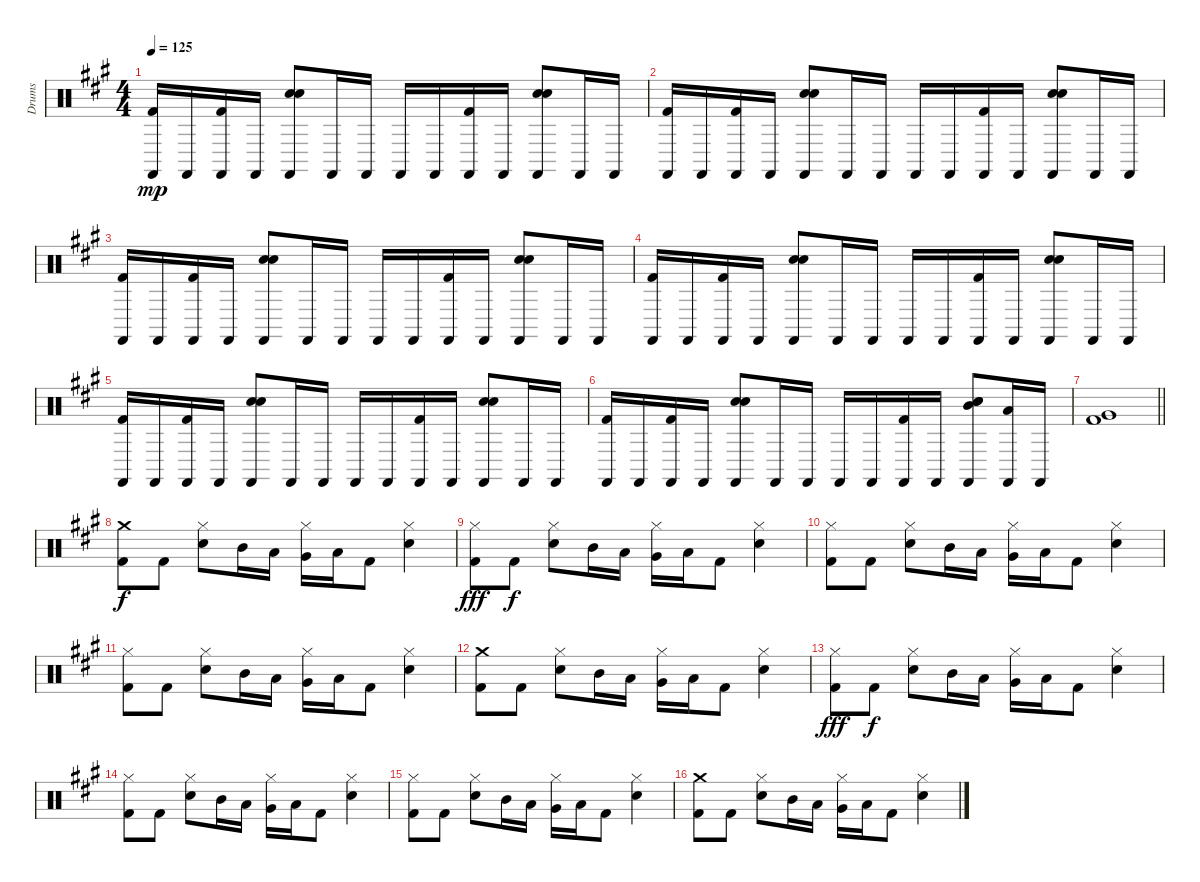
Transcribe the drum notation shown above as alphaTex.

\track ("Drums" "Drums") {instrument percussion}
\staff {score}
\articulation defaults
\ts (4 4)
\tempo 125
\clef neutral
\ks a
("Castanets (hit)" "Kick (hit) 2").16{dy mp} "Castanets (hit)".16 ("Castanets (hit)" "Kick (hit) 2").16 "Castanets (hit)".16 ("Castanets (hit)" "Hand Clap (hit)" "Snare (hit) 2").8 "Castanets (hit)".16 "Castanets (hit)".16 "Castanets (hit)".16 "Castanets (hit)".16 ("Castanets (hit)" "Kick (hit) 2").16 "Castanets (hit)".16 ("Castanets (hit)" "Hand Clap (hit)" "Snare (hit) 2").8 "Castanets (hit)".16 "Castanets (hit)".16 |
("Castanets (hit)" "Kick (hit) 2").16 "Castanets (hit)".16 ("Castanets (hit)" "Kick (hit) 2").16 "Castanets (hit)".16 ("Castanets (hit)" "Hand Clap (hit)" "Snare (hit) 2").8 "Castanets (hit)".16 "Castanets (hit)".16 "Castanets (hit)".16 "Castanets (hit)".16 ("Castanets (hit)" "Kick (hit) 2").16 "Castanets (hit)".16 ("Castanets (hit)" "Hand Clap (hit)" "Snare (hit) 2").8 "Castanets (hit)".16 "Castanets (hit)".16 |
("Castanets (hit)" "Kick (hit) 2").16 "Castanets (hit)".16 ("Castanets (hit)" "Kick (hit) 2").16 "Castanets (hit)".16 ("Castanets (hit)" "Hand Clap (hit)" "Snare (hit) 2").8 "Castanets (hit)".16 "Castanets (hit)".16 "Castanets (hit)".16 "Castanets (hit)".16 ("Castanets (hit)" "Kick (hit) 2").16 "Castanets (hit)".16 ("Castanets (hit)" "Hand Clap (hit)" "Snare (hit) 2").8 "Castanets (hit)".16 "Castanets (hit)".16 |
("Castanets (hit)" "Kick (hit) 2").16 "Castanets (hit)".16 ("Castanets (hit)" "Kick (hit) 2").16 "Castanets (hit)".16 ("Castanets (hit)" "Hand Clap (hit)" "Snare (hit) 2").8 "Castanets (hit)".16 "Castanets (hit)".16 "Castanets (hit)".16 "Castanets (hit)".16 ("Castanets (hit)" "Kick (hit) 2").16 "Castanets (hit)".16 ("Castanets (hit)" "Hand Clap (hit)" "Snare (hit) 2").8 "Castanets (hit)".16 "Castanets (hit)".16 |
("Castanets (hit)" "Kick (hit) 2").16 "Castanets (hit)".16 ("Castanets (hit)" "Kick (hit) 2").16 "Castanets (hit)".16 ("Castanets (hit)" "Hand Clap (hit)" "Snare (hit) 2").8 "Castanets (hit)".16 "Castanets (hit)".16 "Castanets (hit)".16 "Castanets (hit)".16 ("Castanets (hit)" "Kick (hit) 2").16 "Castanets (hit)".16 ("Castanets (hit)" "Hand Clap (hit)" "Snare (hit) 2").8 "Castanets (hit)".16 "Castanets (hit)".16 |
("Castanets (hit)" "Kick (hit) 2").16 "Castanets (hit)".16 ("Castanets (hit)" "Kick (hit) 2").16 "Castanets (hit)".16 ("Castanets (hit)" "Hand Clap (hit)" "Snare (hit) 2").8 "Castanets (hit)".16 "Castanets (hit)".16 "Castanets (hit)".16 "Castanets (hit)".16 ("Castanets (hit)" "Kick (hit) 2").16 "Castanets (hit)".16 ("Castanets (hit)" "Mid Tom (hit)" "Hand Clap (hit)" "Snare (hit) 2").8 ("Castanets (hit)" "Low Tom (hit)").16 "Castanets (hit)".16 |
\barLineRight lightlight
("Very Low Tom (hit)" "Kick (hit) 2").1 |
("Crash medium (hit)" "Kick (hit) 2").8{dy f} "Kick (hit) 2".8 ("Hi-Hat (closed)" "Snare (hit) 2").8 "Mid Tom (hit)".16 "Low Tom (hit)".16 ("Hi-Hat (closed)" "Very Low Tom (hit)").16 "Low Floor Tom (hit)".16 "Kick (hit) 2".8 ("Hi-Hat (closed)" "Snare (hit) 2").4 |
("Hi-Hat (closed)" "Kick (hit) 2").8{dy fff} "Kick (hit) 2".8{dy f} ("Hi-Hat (closed)" "Snare (hit) 2").8 "Mid Tom (hit)".16 "Low Tom (hit)".16 ("Hi-Hat (closed)" "Very Low Tom (hit)").16 "Low Floor Tom (hit)".16 "Kick (hit) 2".8 ("Hi-Hat (closed)" "Snare (hit) 2").4 |
("Hi-Hat (closed)" "Kick (hit) 2").8 "Kick (hit) 2".8 ("Hi-Hat (closed)" "Snare (hit) 2").8 "Mid Tom (hit)".16 "Low Tom (hit)".16 ("Hi-Hat (closed)" "Very Low Tom (hit)").16 "Low Floor Tom (hit)".16 "Kick (hit) 2".8 ("Hi-Hat (closed)" "Snare (hit) 2").4 |
("Hi-Hat (closed)" "Kick (hit) 2").8 "Kick (hit) 2".8 ("Hi-Hat (closed)" "Snare (hit) 2").8 "Mid Tom (hit)".16 "Low Tom (hit)".16 ("Hi-Hat (closed)" "Very Low Tom (hit)").16 "Low Floor Tom (hit)".16 "Kick (hit) 2".8 ("Hi-Hat (closed)" "Snare (hit) 2").4 |
("Crash medium (hit)" "Kick (hit) 2").8 "Kick (hit) 2".8 ("Hi-Hat (closed)" "Snare (hit) 2").8 "Mid Tom (hit)".16 "Low Tom (hit)".16 ("Hi-Hat (closed)" "Very Low Tom (hit)").16 "Low Floor Tom (hit)".16 "Kick (hit) 2".8 ("Hi-Hat (closed)" "Snare (hit) 2").4 |
("Hi-Hat (closed)" "Kick (hit) 2").8{dy fff} "Kick (hit) 2".8{dy f} ("Hi-Hat (closed)" "Snare (hit) 2").8 "Mid Tom (hit)".16 "Low Tom (hit)".16 ("Hi-Hat (closed)" "Very Low Tom (hit)").16 "Low Floor Tom (hit)".16 "Kick (hit) 2".8 ("Hi-Hat (closed)" "Snare (hit) 2").4 |
("Hi-Hat (closed)" "Kick (hit) 2").8 "Kick (hit) 2".8 ("Hi-Hat (closed)" "Snare (hit) 2").8 "Mid Tom (hit)".16 "Low Tom (hit)".16 ("Hi-Hat (closed)" "Very Low Tom (hit)").16 "Low Floor Tom (hit)".16 "Kick (hit) 2".8 ("Hi-Hat (closed)" "Snare (hit) 2").4 |
("Hi-Hat (closed)" "Kick (hit) 2").8 "Kick (hit) 2".8 ("Hi-Hat (closed)" "Snare (hit) 2").8 "Mid Tom (hit)".16 "Low Tom (hit)".16 ("Hi-Hat (closed)" "Very Low Tom (hit)").16 "Low Floor Tom (hit)".16 "Kick (hit) 2".8 ("Hi-Hat (closed)" "Snare (hit) 2").4 |
("Crash medium (hit)" "Kick (hit) 2").8 "Kick (hit) 2".8 ("Hi-Hat (closed)" "Snare (hit) 2").8 "Mid Tom (hit)".16 "Low Tom (hit)".16 ("Hi-Hat (closed)" "Very Low Tom (hit)").16 "Low Floor Tom (hit)".16 "Kick (hit) 2".8 ("Hi-Hat (closed)" "Snare (hit) 2").4
